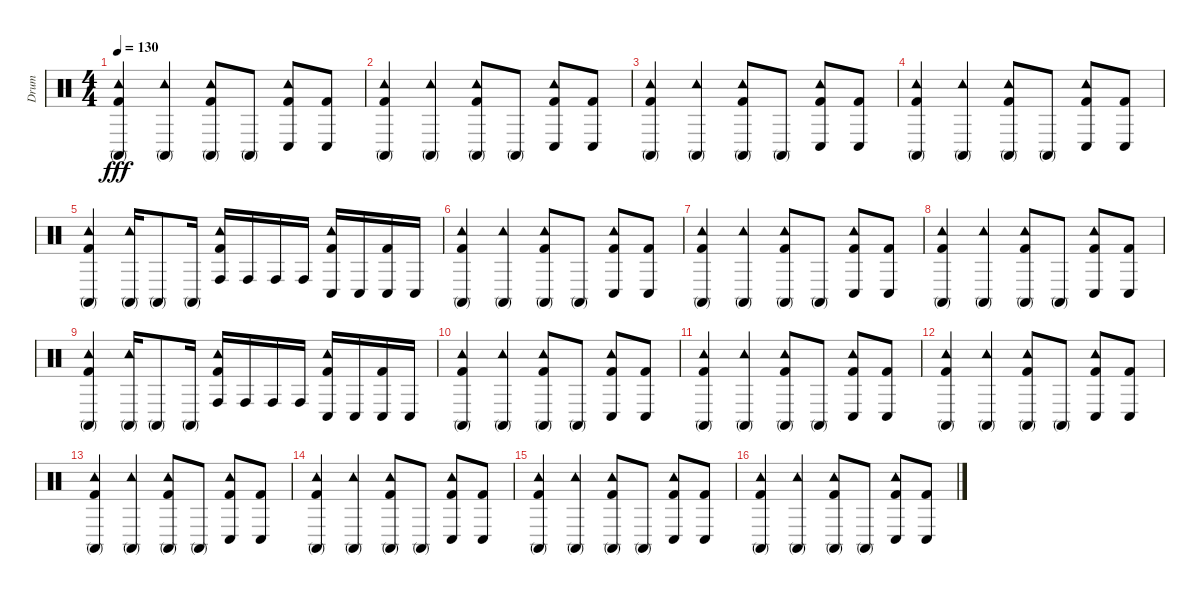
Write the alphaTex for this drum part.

\track ("Drum" "Drum") {instrument percussion}
\staff {score}
\articulation defaults
\ts (4 4)
\tempo 130
\clef neutral
\ks c
("Tambourine (hit)" "Conga high (mute)" "Kick (hit) 2").4{dy fff} ("Tambourine (hit)" "Conga high (mute)").4 ("Tambourine (hit)" "Conga high (mute)" "Kick (hit) 2").8 "Conga high (mute)".8 ("Tambourine (hit)" "Conga low (hit)" "Kick (hit) 2").8 ("Conga low (hit)" "Kick (hit) 2").8 |
("Tambourine (hit)" "Conga high (mute)" "Kick (hit) 2").4 ("Tambourine (hit)" "Conga high (mute)").4 ("Tambourine (hit)" "Conga high (mute)" "Kick (hit) 2").8 "Conga high (mute)".8 ("Tambourine (hit)" "Conga low (hit)" "Kick (hit) 2").8 ("Conga low (hit)" "Kick (hit) 2").8 |
("Tambourine (hit)" "Conga high (mute)" "Kick (hit) 2").4 ("Tambourine (hit)" "Conga high (mute)").4 ("Tambourine (hit)" "Conga high (mute)" "Kick (hit) 2").8 "Conga high (mute)".8 ("Tambourine (hit)" "Conga low (hit)" "Kick (hit) 2").8 ("Conga low (hit)" "Kick (hit) 2").8 |
("Tambourine (hit)" "Conga high (mute)" "Kick (hit) 2").4 ("Tambourine (hit)" "Conga high (mute)").4 ("Tambourine (hit)" "Conga high (mute)" "Kick (hit) 2").8 "Conga high (mute)".8 ("Tambourine (hit)" "Conga low (hit)" "Kick (hit) 2").8 ("Conga low (hit)" "Kick (hit) 2").8 |
("Tambourine (hit)" "Conga high (mute)" "Kick (hit) 2").4 ("Tambourine (hit)" "Conga high (mute)").16 "Conga high (mute)".8 "Conga high (mute)".16 ("Tambourine (hit)" "Conga high (hit)" "Kick (hit) 2").16 "Conga high (hit)".16 "Conga high (hit)".16 "Conga high (hit)".16 ("Tambourine (hit)" "Conga low (hit)" "Kick (hit) 2").16 "Conga low (hit)".16 ("Conga low (hit)" "Kick (hit) 2").16 "Conga low (hit)".16 |
("Tambourine (hit)" "Conga high (mute)" "Kick (hit) 2").4 ("Tambourine (hit)" "Conga high (mute)").4 ("Tambourine (hit)" "Conga high (mute)" "Kick (hit) 2").8 "Conga high (mute)".8 ("Tambourine (hit)" "Conga low (hit)" "Kick (hit) 2").8 ("Conga low (hit)" "Kick (hit) 2").8 |
("Tambourine (hit)" "Conga high (mute)" "Kick (hit) 2").4 ("Tambourine (hit)" "Conga high (mute)").4 ("Tambourine (hit)" "Conga high (mute)" "Kick (hit) 2").8 "Conga high (mute)".8 ("Tambourine (hit)" "Conga low (hit)" "Kick (hit) 2").8 ("Conga low (hit)" "Kick (hit) 2").8 |
("Tambourine (hit)" "Conga high (mute)" "Kick (hit) 2").4 ("Tambourine (hit)" "Conga high (mute)").4 ("Tambourine (hit)" "Conga high (mute)" "Kick (hit) 2").8 "Conga high (mute)".8 ("Tambourine (hit)" "Conga low (hit)" "Kick (hit) 2").8 ("Conga low (hit)" "Kick (hit) 2").8 |
("Tambourine (hit)" "Conga high (mute)" "Kick (hit) 2").4 ("Tambourine (hit)" "Conga high (mute)").16 "Conga high (mute)".8 "Conga high (mute)".16 ("Tambourine (hit)" "Conga high (hit)" "Kick (hit) 2").16 "Conga high (hit)".16 "Conga high (hit)".16 "Conga high (hit)".16 ("Tambourine (hit)" "Conga low (hit)" "Kick (hit) 2").16 "Conga low (hit)".16 ("Conga low (hit)" "Kick (hit) 2").16 "Conga low (hit)".16 |
("Tambourine (hit)" "Conga high (mute)" "Kick (hit) 2").4 ("Tambourine (hit)" "Conga high (mute)").4 ("Tambourine (hit)" "Conga high (mute)" "Kick (hit) 2").8 "Conga high (mute)".8 ("Tambourine (hit)" "Conga low (hit)" "Kick (hit) 2").8 ("Conga low (hit)" "Kick (hit) 2").8 |
("Tambourine (hit)" "Conga high (mute)" "Kick (hit) 2").4 ("Tambourine (hit)" "Conga high (mute)").4 ("Tambourine (hit)" "Conga high (mute)" "Kick (hit) 2").8 "Conga high (mute)".8 ("Tambourine (hit)" "Conga low (hit)" "Kick (hit) 2").8 ("Conga low (hit)" "Kick (hit) 2").8 |
("Tambourine (hit)" "Conga high (mute)" "Kick (hit) 2").4 ("Tambourine (hit)" "Conga high (mute)").4 ("Tambourine (hit)" "Conga high (mute)" "Kick (hit) 2").8 "Conga high (mute)".8 ("Tambourine (hit)" "Conga low (hit)" "Kick (hit) 2").8 ("Conga low (hit)" "Kick (hit) 2").8 |
("Tambourine (hit)" "Conga high (mute)" "Kick (hit) 2").4 ("Tambourine (hit)" "Conga high (mute)").4 ("Tambourine (hit)" "Conga high (mute)" "Kick (hit) 2").8 "Conga high (mute)".8 ("Tambourine (hit)" "Conga low (hit)" "Kick (hit) 2").8 ("Conga low (hit)" "Kick (hit) 2").8 |
("Tambourine (hit)" "Conga high (mute)" "Kick (hit) 2").4 ("Tambourine (hit)" "Conga high (mute)").4 ("Tambourine (hit)" "Conga high (mute)" "Kick (hit) 2").8 "Conga high (mute)".8 ("Tambourine (hit)" "Conga low (hit)" "Kick (hit) 2").8 ("Conga low (hit)" "Kick (hit) 2").8 |
("Tambourine (hit)" "Conga high (mute)" "Kick (hit) 2").4 ("Tambourine (hit)" "Conga high (mute)").4 ("Tambourine (hit)" "Conga high (mute)" "Kick (hit) 2").8 "Conga high (mute)".8 ("Tambourine (hit)" "Conga low (hit)" "Kick (hit) 2").8 ("Conga low (hit)" "Kick (hit) 2").8 |
("Tambourine (hit)" "Conga high (mute)" "Kick (hit) 2").4 ("Tambourine (hit)" "Conga high (mute)").4 ("Tambourine (hit)" "Conga high (mute)" "Kick (hit) 2").8 "Conga high (mute)".8 ("Tambourine (hit)" "Conga low (hit)" "Kick (hit) 2").8 ("Conga low (hit)" "Kick (hit) 2").8
